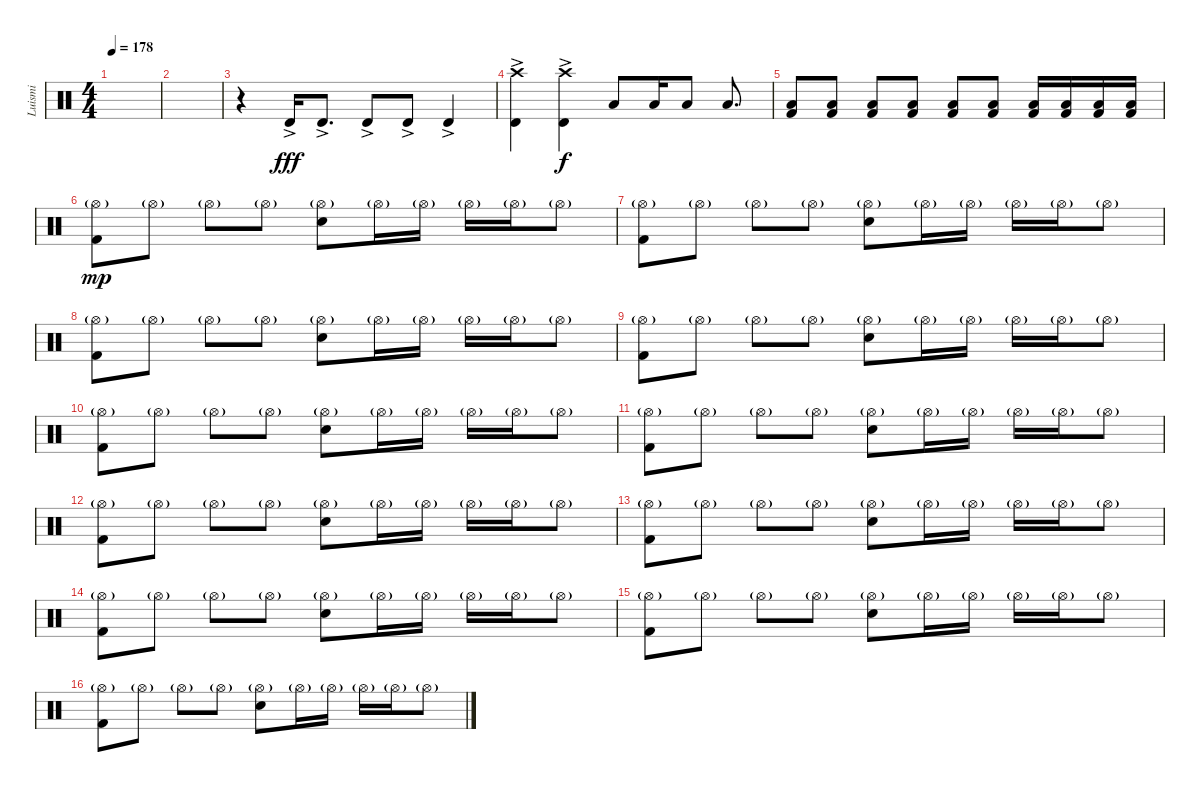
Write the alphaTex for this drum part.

\track ("Luismi" "Luismi") {instrument percussion}
\staff {score}
\articulation defaults
\ts (4 4)
\tempo 178
\clef neutral
\ks c
|
|
r.4 "Timbale high (hit)"{ac}.16{dy fff} "Timbale high (hit)"{ac}.8{d} "Timbale high (hit)"{ac}.8 "Timbale high (hit)"{ac}.8 "Timbale high (hit)"{ac}.4 |
("Crash high (hit)" "Timbale high (hit)"{ac}).4 ("Crash high (hit)" "Timbale high (hit)"{ac}).4{dy f} "Low Tom (hit)".8 "Low Tom (hit)".16 "Low Tom (hit)".8 "Low Tom (hit)".8{d} |
("Low Floor Tom (hit)" "Kick (hit) 2").8 ("Low Floor Tom (hit)" "Kick (hit) 2").8 ("Low Floor Tom (hit)" "Kick (hit) 2").8 ("Low Floor Tom (hit)" "Kick (hit) 2").8 ("Low Floor Tom (hit)" "Kick (hit) 2").8 ("Low Floor Tom (hit)" "Kick (hit) 2").8 ("Low Floor Tom (hit)" "Kick (hit) 2").16 ("Low Floor Tom (hit)" "Kick (hit) 2").16 ("Low Floor Tom (hit)" "Kick (hit) 2").16 ("Low Floor Tom (hit)" "Kick (hit) 2").16 |
("Hi-Hat (open)"{g} "Kick (hit) 2").8{dy mp} "Hi-Hat (open)"{g}.8 "Hi-Hat (open)"{g}.8 "Hi-Hat (open)"{g}.8 ("Hi-Hat (open)"{g} "Snare (hit) 2").8 "Hi-Hat (open)"{g}.16 "Hi-Hat (open)"{g}.16 "Hi-Hat (open)"{g}.16 "Hi-Hat (open)"{g}.16 "Hi-Hat (open)"{g}.8 |
("Hi-Hat (open)"{g} "Kick (hit) 2").8 "Hi-Hat (open)"{g}.8 "Hi-Hat (open)"{g}.8 "Hi-Hat (open)"{g}.8 ("Hi-Hat (open)"{g} "Snare (hit) 2").8 "Hi-Hat (open)"{g}.16 "Hi-Hat (open)"{g}.16 "Hi-Hat (open)"{g}.16 "Hi-Hat (open)"{g}.16 "Hi-Hat (open)"{g}.8 |
("Hi-Hat (open)"{g} "Kick (hit) 2").8 "Hi-Hat (open)"{g}.8 "Hi-Hat (open)"{g}.8 "Hi-Hat (open)"{g}.8 ("Hi-Hat (open)"{g} "Snare (hit) 2").8 "Hi-Hat (open)"{g}.16 "Hi-Hat (open)"{g}.16 "Hi-Hat (open)"{g}.16 "Hi-Hat (open)"{g}.16 "Hi-Hat (open)"{g}.8 |
("Hi-Hat (open)"{g} "Kick (hit) 2").8 "Hi-Hat (open)"{g}.8 "Hi-Hat (open)"{g}.8 "Hi-Hat (open)"{g}.8 ("Hi-Hat (open)"{g} "Snare (hit) 2").8 "Hi-Hat (open)"{g}.16 "Hi-Hat (open)"{g}.16 "Hi-Hat (open)"{g}.16 "Hi-Hat (open)"{g}.16 "Hi-Hat (open)"{g}.8 |
("Hi-Hat (open)"{g} "Kick (hit) 2").8 "Hi-Hat (open)"{g}.8 "Hi-Hat (open)"{g}.8 "Hi-Hat (open)"{g}.8 ("Hi-Hat (open)"{g} "Snare (hit) 2").8 "Hi-Hat (open)"{g}.16 "Hi-Hat (open)"{g}.16 "Hi-Hat (open)"{g}.16 "Hi-Hat (open)"{g}.16 "Hi-Hat (open)"{g}.8 |
("Hi-Hat (open)"{g} "Kick (hit) 2").8 "Hi-Hat (open)"{g}.8 "Hi-Hat (open)"{g}.8 "Hi-Hat (open)"{g}.8 ("Hi-Hat (open)"{g} "Snare (hit) 2").8 "Hi-Hat (open)"{g}.16 "Hi-Hat (open)"{g}.16 "Hi-Hat (open)"{g}.16 "Hi-Hat (open)"{g}.16 "Hi-Hat (open)"{g}.8 |
("Hi-Hat (open)"{g} "Kick (hit) 2").8 "Hi-Hat (open)"{g}.8 "Hi-Hat (open)"{g}.8 "Hi-Hat (open)"{g}.8 ("Hi-Hat (open)"{g} "Snare (hit) 2").8 "Hi-Hat (open)"{g}.16 "Hi-Hat (open)"{g}.16 "Hi-Hat (open)"{g}.16 "Hi-Hat (open)"{g}.16 "Hi-Hat (open)"{g}.8 |
("Hi-Hat (open)"{g} "Kick (hit) 2").8 "Hi-Hat (open)"{g}.8 "Hi-Hat (open)"{g}.8 "Hi-Hat (open)"{g}.8 ("Hi-Hat (open)"{g} "Snare (hit) 2").8 "Hi-Hat (open)"{g}.16 "Hi-Hat (open)"{g}.16 "Hi-Hat (open)"{g}.16 "Hi-Hat (open)"{g}.16 "Hi-Hat (open)"{g}.8 |
("Hi-Hat (open)"{g} "Kick (hit) 2").8 "Hi-Hat (open)"{g}.8 "Hi-Hat (open)"{g}.8 "Hi-Hat (open)"{g}.8 ("Hi-Hat (open)"{g} "Snare (hit) 2").8 "Hi-Hat (open)"{g}.16 "Hi-Hat (open)"{g}.16 "Hi-Hat (open)"{g}.16 "Hi-Hat (open)"{g}.16 "Hi-Hat (open)"{g}.8 |
("Hi-Hat (open)"{g} "Kick (hit) 2").8 "Hi-Hat (open)"{g}.8 "Hi-Hat (open)"{g}.8 "Hi-Hat (open)"{g}.8 ("Hi-Hat (open)"{g} "Snare (hit) 2").8 "Hi-Hat (open)"{g}.16 "Hi-Hat (open)"{g}.16 "Hi-Hat (open)"{g}.16 "Hi-Hat (open)"{g}.16 "Hi-Hat (open)"{g}.8 |
("Hi-Hat (open)"{g} "Kick (hit) 2").8 "Hi-Hat (open)"{g}.8 "Hi-Hat (open)"{g}.8 "Hi-Hat (open)"{g}.8 ("Hi-Hat (open)"{g} "Snare (hit) 2").8 "Hi-Hat (open)"{g}.16 "Hi-Hat (open)"{g}.16 "Hi-Hat (open)"{g}.16 "Hi-Hat (open)"{g}.16 "Hi-Hat (open)"{g}.8
